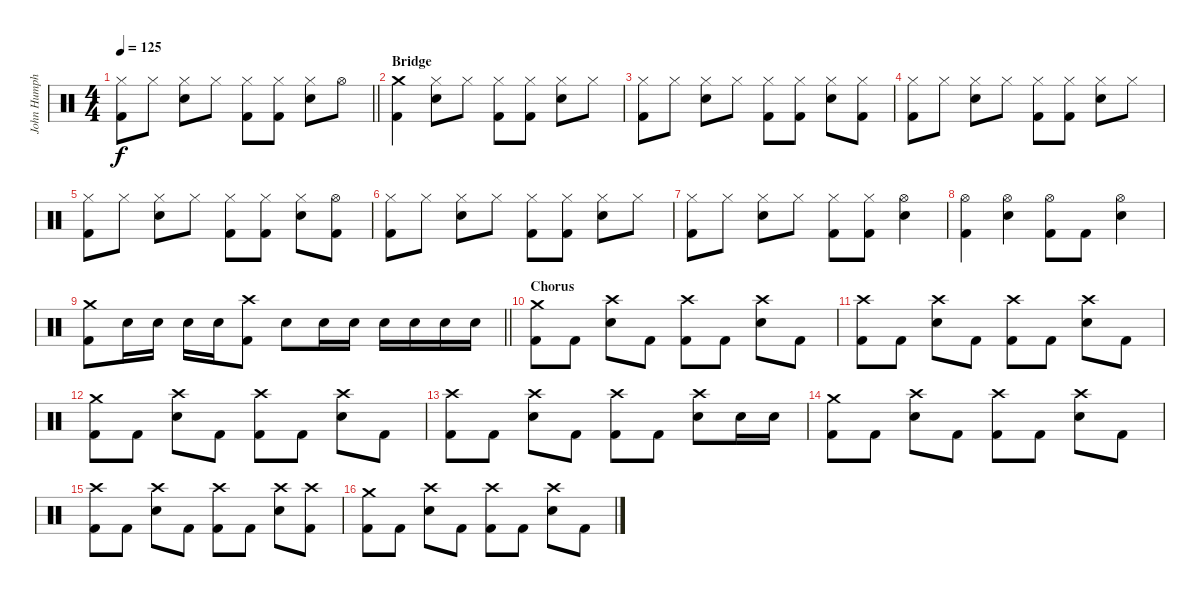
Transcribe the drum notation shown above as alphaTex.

\track ("John Humphrey - Drums" "John Humph") {instrument percussion}
\staff {score}
\articulation defaults
\ts (4 4)
\tempo 125
\clef neutral
\barLineRight lightlight
\ks c
("Hi-Hat (closed)" "Kick (hit) 2").8{dy f} "Hi-Hat (closed)".8 ("Hi-Hat (closed)" "Electric Snare (hit)").8 "Hi-Hat (closed)".8 ("Hi-Hat (closed)" "Kick (hit) 2").8 ("Hi-Hat (closed)" "Kick (hit) 2").8 ("Hi-Hat (closed)" "Electric Snare (hit)").8 "Hi-Hat (open)".8 |
\section ("" "Bridge")
("Crash medium (hit)" "Kick (hit) 2").4 ("Hi-Hat (closed)" "Electric Snare (hit)").8 "Hi-Hat (closed)".8 ("Hi-Hat (closed)" "Kick (hit) 2").8 ("Hi-Hat (closed)" "Kick (hit) 2").8 ("Hi-Hat (closed)" "Electric Snare (hit)").8 "Hi-Hat (closed)".8 |
("Hi-Hat (closed)" "Kick (hit) 2").8 "Hi-Hat (closed)".8 ("Hi-Hat (closed)" "Electric Snare (hit)").8 "Hi-Hat (closed)".8 ("Hi-Hat (closed)" "Kick (hit) 2").8 ("Hi-Hat (closed)" "Kick (hit) 2").8 ("Hi-Hat (closed)" "Electric Snare (hit)").8 ("Hi-Hat (closed)" "Kick (hit) 2").8 |
("Hi-Hat (closed)" "Kick (hit) 2").8 "Hi-Hat (closed)".8 ("Hi-Hat (closed)" "Electric Snare (hit)").8 "Hi-Hat (closed)".8 ("Hi-Hat (closed)" "Kick (hit) 2").8 ("Hi-Hat (closed)" "Kick (hit) 2").8 ("Hi-Hat (closed)" "Electric Snare (hit)").8 "Hi-Hat (closed)".8 |
("Hi-Hat (closed)" "Kick (hit) 2").8 "Hi-Hat (closed)".8 ("Hi-Hat (closed)" "Electric Snare (hit)").8 "Hi-Hat (closed)".8 ("Hi-Hat (closed)" "Kick (hit) 2").8 ("Hi-Hat (closed)" "Kick (hit) 2").8 ("Hi-Hat (closed)" "Electric Snare (hit)").8 ("Hi-Hat (open)" "Kick (hit) 2").8 |
("Hi-Hat (closed)" "Kick (hit) 2").8 "Hi-Hat (closed)".8 ("Hi-Hat (closed)" "Electric Snare (hit)").8 "Hi-Hat (closed)".8 ("Hi-Hat (closed)" "Kick (hit) 2").8 ("Hi-Hat (closed)" "Kick (hit) 2").8 ("Hi-Hat (closed)" "Electric Snare (hit)").8 "Hi-Hat (closed)".8 |
("Hi-Hat (closed)" "Kick (hit) 2").8 "Hi-Hat (closed)".8 ("Hi-Hat (closed)" "Electric Snare (hit)").8 "Hi-Hat (closed)".8 ("Hi-Hat (closed)" "Kick (hit) 2").8 ("Hi-Hat (closed)" "Kick (hit) 2").8 ("Hi-Hat (open)" "Electric Snare (hit)").4 |
("Hi-Hat (open)" "Kick (hit) 2").4 ("Hi-Hat (open)" "Electric Snare (hit)").4 ("Hi-Hat (open)" "Kick (hit) 2").8 "Kick (hit) 2".8 ("Hi-Hat (open)" "Electric Snare (hit)").4 |
\barLineRight lightlight
("Crash medium (hit)" "Kick (hit) 2").8 "Electric Snare (hit)".16 "Electric Snare (hit)".16 "Electric Snare (hit)".16 "Electric Snare (hit)".16 ("Crash high (hit)" "Kick (hit) 2").8 "Electric Snare (hit)".8 "Electric Snare (hit)".16 "Electric Snare (hit)".16 "Electric Snare (hit)".16 "Electric Snare (hit)".16 "Electric Snare (hit)".16 "Electric Snare (hit)".16 |
\section ("" "Chorus")
("Crash medium (hit)" "Kick (hit) 2").8 "Kick (hit) 2".8 ("Crash high (hit)" "Electric Snare (hit)").8 "Kick (hit) 2".8 ("Crash high (hit)" "Kick (hit) 2").8 "Kick (hit) 2".8 ("Crash high (hit)" "Electric Snare (hit)").8 "Kick (hit) 2".8 |
("Crash high (hit)" "Kick (hit) 2").8 "Kick (hit) 2".8 ("Crash high (hit)" "Electric Snare (hit)").8 "Kick (hit) 2".8 ("Crash high (hit)" "Kick (hit) 2").8 "Kick (hit) 2".8 ("Crash high (hit)" "Electric Snare (hit)").8 "Kick (hit) 2".8 |
("Crash medium (hit)" "Kick (hit) 2").8 "Kick (hit) 2".8 ("Crash high (hit)" "Electric Snare (hit)").8 "Kick (hit) 2".8 ("Crash high (hit)" "Kick (hit) 2").8 "Kick (hit) 2".8 ("Crash high (hit)" "Electric Snare (hit)").8 "Kick (hit) 2".8 |
("Crash high (hit)" "Kick (hit) 2").8 "Kick (hit) 2".8 ("Crash high (hit)" "Electric Snare (hit)").8 "Kick (hit) 2".8 ("Crash high (hit)" "Kick (hit) 2").8 "Kick (hit) 2".8 ("Crash high (hit)" "Electric Snare (hit)").8 "Electric Snare (hit)".16 "Electric Snare (hit)".16 |
("Crash medium (hit)" "Kick (hit) 2").8 "Kick (hit) 2".8 ("Crash high (hit)" "Electric Snare (hit)").8 "Kick (hit) 2".8 ("Crash high (hit)" "Kick (hit) 2").8 "Kick (hit) 2".8 ("Crash high (hit)" "Electric Snare (hit)").8 "Kick (hit) 2".8 |
("Crash high (hit)" "Kick (hit) 2").8 "Kick (hit) 2".8 ("Crash high (hit)" "Electric Snare (hit)").8 "Kick (hit) 2".8 ("Crash high (hit)" "Kick (hit) 2").8 "Kick (hit) 2".8 ("Crash high (hit)" "Electric Snare (hit)").8 ("Crash high (hit)" "Kick (hit) 2").8 |
("Crash medium (hit)" "Kick (hit) 2").8 "Kick (hit) 2".8 ("Crash high (hit)" "Electric Snare (hit)").8 "Kick (hit) 2".8 ("Crash high (hit)" "Kick (hit) 2").8 "Kick (hit) 2".8 ("Crash high (hit)" "Electric Snare (hit)").8 "Kick (hit) 2".8
